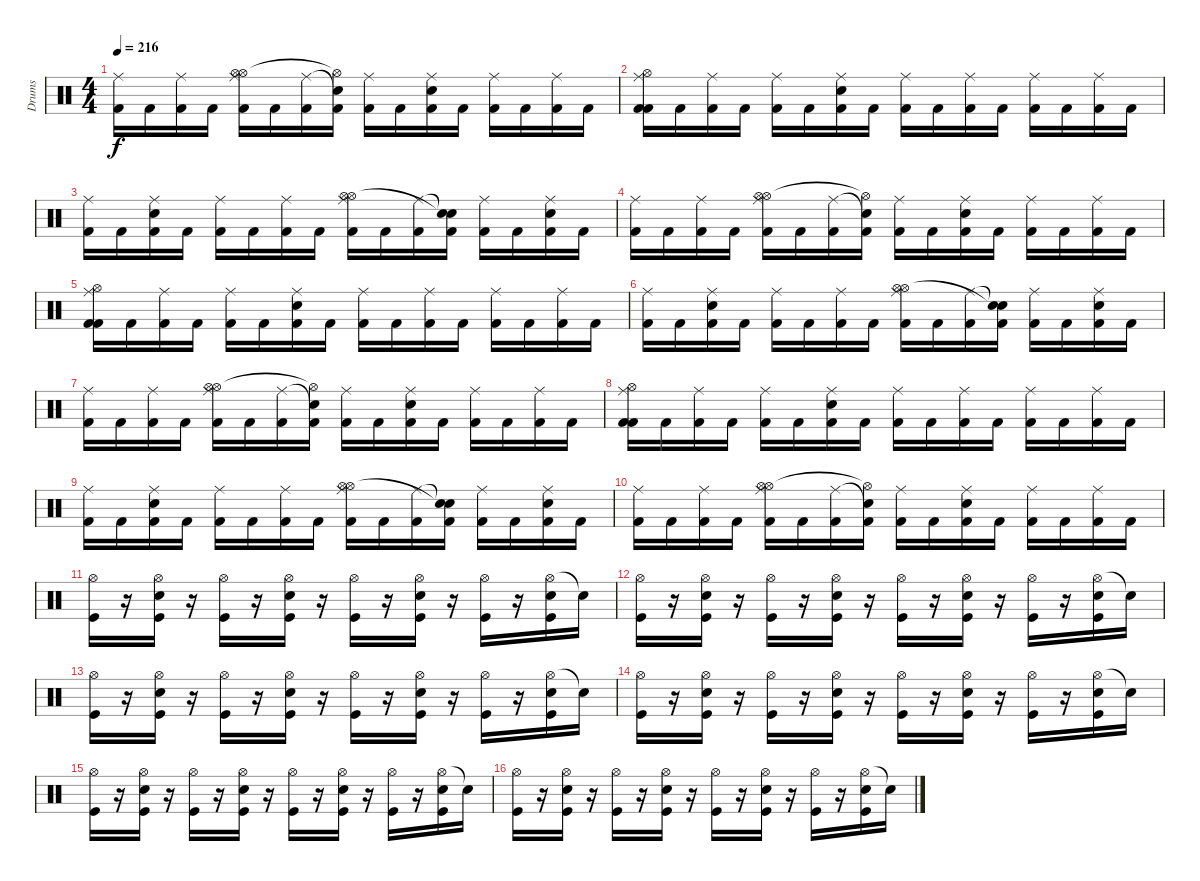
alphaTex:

\track ("Drums" "Drums") {instrument percussion}
\staff {score}
\articulation defaults
\ts (4 4)
\tempo 216
\clef neutral
\ks c
("Kick (hit) 2" "Ride (middle)").16{dy f} "Kick (hit) 2".16 ("Kick (hit) 2" "Ride (middle)").16 "Kick (hit) 2".16 ("Kick (hit) 2" "Ride (middle)" "Hi-Hat (open)" "Hi-Hat (open)").16 "Kick (hit) 2".16 ("Kick (hit) 2" "Ride (middle)").16 ("Kick (hit) 2" "Snare (hit)"{t} "Hi-Hat (open)"{t}).16 ("Kick (hit) 2" "Ride (middle)").16 "Kick (hit) 2".16 ("Kick (hit) 2" "Ride (middle)" "Snare (hit) 2").16 "Kick (hit) 2".16 ("Kick (hit) 2" "Ride (middle)").16 "Kick (hit) 2".16 ("Kick (hit) 2" "Ride (middle)").16 "Kick (hit) 2".16 |
("Kick (hit) 2" "Ride (middle)" "Hi-Hat (open)" "Kick (hit) 2").16 "Kick (hit) 2".16 ("Kick (hit) 2" "Ride (middle)").16 "Kick (hit) 2".16 ("Kick (hit) 2" "Ride (middle)").16 "Kick (hit) 2".16 ("Kick (hit) 2" "Ride (middle)" "Snare (hit) 2").16 "Kick (hit) 2".16 ("Kick (hit) 2" "Ride (middle)").16 "Kick (hit) 2".16 ("Kick (hit) 2" "Ride (middle)").16 "Kick (hit) 2".16 ("Kick (hit) 2" "Ride (middle)").16 "Kick (hit) 2".16 ("Kick (hit) 2" "Ride (middle)").16 "Kick (hit) 2".16 |
("Kick (hit) 2" "Ride (middle)").16 "Kick (hit) 2".16 ("Kick (hit) 2" "Ride (middle)" "Snare (hit) 2").16 "Kick (hit) 2".16 ("Kick (hit) 2" "Ride (middle)").16 "Kick (hit) 2".16 ("Kick (hit) 2" "Ride (middle)").16 "Kick (hit) 2".16 ("Kick (hit) 2" "Ride (middle)" "Hi-Hat (open)" "Hi-Hat (open)").16 "Kick (hit) 2".16 ("Kick (hit) 2" "Ride (middle)").16 ("Kick (hit) 2" "Snare (hit)"{t} "Snare (hit)"{t}).16 ("Kick (hit) 2" "Ride (middle)").16 "Kick (hit) 2".16 ("Kick (hit) 2" "Ride (middle)" "Snare (hit) 2").16 "Kick (hit) 2".16 |
("Kick (hit) 2" "Ride (middle)").16 "Kick (hit) 2".16 ("Kick (hit) 2" "Ride (middle)").16 "Kick (hit) 2".16 ("Kick (hit) 2" "Ride (middle)" "Hi-Hat (open)" "Hi-Hat (open)").16 "Kick (hit) 2".16 ("Kick (hit) 2" "Ride (middle)").16 ("Kick (hit) 2" "Snare (hit)"{t} "Hi-Hat (open)"{t}).16 ("Kick (hit) 2" "Ride (middle)").16 "Kick (hit) 2".16 ("Kick (hit) 2" "Ride (middle)" "Snare (hit) 2").16 "Kick (hit) 2".16 ("Kick (hit) 2" "Ride (middle)").16 "Kick (hit) 2".16 ("Kick (hit) 2" "Ride (middle)").16 "Kick (hit) 2".16 |
("Kick (hit) 2" "Ride (middle)" "Hi-Hat (open)" "Kick (hit) 2").16 "Kick (hit) 2".16 ("Kick (hit) 2" "Ride (middle)").16 "Kick (hit) 2".16 ("Kick (hit) 2" "Ride (middle)").16 "Kick (hit) 2".16 ("Kick (hit) 2" "Ride (middle)" "Snare (hit) 2").16 "Kick (hit) 2".16 ("Kick (hit) 2" "Ride (middle)").16 "Kick (hit) 2".16 ("Kick (hit) 2" "Ride (middle)").16 "Kick (hit) 2".16 ("Kick (hit) 2" "Ride (middle)").16 "Kick (hit) 2".16 ("Kick (hit) 2" "Ride (middle)").16 "Kick (hit) 2".16 |
("Kick (hit) 2" "Ride (middle)").16 "Kick (hit) 2".16 ("Kick (hit) 2" "Ride (middle)" "Snare (hit) 2").16 "Kick (hit) 2".16 ("Kick (hit) 2" "Ride (middle)").16 "Kick (hit) 2".16 ("Kick (hit) 2" "Ride (middle)").16 "Kick (hit) 2".16 ("Kick (hit) 2" "Ride (middle)" "Hi-Hat (open)" "Hi-Hat (open)").16 "Kick (hit) 2".16 ("Kick (hit) 2" "Ride (middle)").16 ("Kick (hit) 2" "Snare (hit)"{t} "Snare (hit)"{t}).16 ("Kick (hit) 2" "Ride (middle)").16 "Kick (hit) 2".16 ("Kick (hit) 2" "Ride (middle)" "Snare (hit) 2").16 "Kick (hit) 2".16 |
("Kick (hit) 2" "Ride (middle)").16 "Kick (hit) 2".16 ("Kick (hit) 2" "Ride (middle)").16 "Kick (hit) 2".16 ("Kick (hit) 2" "Ride (middle)" "Hi-Hat (open)" "Hi-Hat (open)").16 "Kick (hit) 2".16 ("Kick (hit) 2" "Ride (middle)").16 ("Kick (hit) 2" "Snare (hit)"{t} "Hi-Hat (open)"{t}).16 ("Kick (hit) 2" "Ride (middle)").16 "Kick (hit) 2".16 ("Kick (hit) 2" "Ride (middle)" "Snare (hit) 2").16 "Kick (hit) 2".16 ("Kick (hit) 2" "Ride (middle)").16 "Kick (hit) 2".16 ("Kick (hit) 2" "Ride (middle)").16 "Kick (hit) 2".16 |
("Kick (hit) 2" "Ride (middle)" "Hi-Hat (open)" "Kick (hit) 2").16 "Kick (hit) 2".16 ("Kick (hit) 2" "Ride (middle)").16 "Kick (hit) 2".16 ("Kick (hit) 2" "Ride (middle)").16 "Kick (hit) 2".16 ("Kick (hit) 2" "Ride (middle)" "Snare (hit) 2").16 "Kick (hit) 2".16 ("Kick (hit) 2" "Ride (middle)").16 "Kick (hit) 2".16 ("Kick (hit) 2" "Ride (middle)").16 "Kick (hit) 2".16 ("Kick (hit) 2" "Ride (middle)").16 "Kick (hit) 2".16 ("Kick (hit) 2" "Ride (middle)").16 "Kick (hit) 2".16 |
("Kick (hit) 2" "Ride (middle)").16 "Kick (hit) 2".16 ("Kick (hit) 2" "Ride (middle)" "Snare (hit) 2").16 "Kick (hit) 2".16 ("Kick (hit) 2" "Ride (middle)").16 "Kick (hit) 2".16 ("Kick (hit) 2" "Ride (middle)").16 "Kick (hit) 2".16 ("Kick (hit) 2" "Ride (middle)" "Hi-Hat (open)" "Hi-Hat (open)").16 "Kick (hit) 2".16 ("Kick (hit) 2" "Ride (middle)").16 ("Kick (hit) 2" "Snare (hit)"{t} "Snare (hit)"{t}).16 ("Kick (hit) 2" "Ride (middle)").16 "Kick (hit) 2".16 ("Kick (hit) 2" "Ride (middle)" "Snare (hit) 2").16 "Kick (hit) 2".16 |
("Kick (hit) 2" "Ride (middle)").16 "Kick (hit) 2".16 ("Kick (hit) 2" "Ride (middle)").16 "Kick (hit) 2".16 ("Kick (hit) 2" "Ride (middle)" "Hi-Hat (open)" "Hi-Hat (open)").16 "Kick (hit) 2".16 ("Kick (hit) 2" "Ride (middle)").16 ("Kick (hit) 2" "Snare (hit)"{t} "Hi-Hat (open)"{t}).16 ("Kick (hit) 2" "Ride (middle)").16 "Kick (hit) 2".16 ("Kick (hit) 2" "Ride (middle)" "Snare (hit) 2").16 "Kick (hit) 2".16 ("Kick (hit) 2" "Ride (middle)").16 "Kick (hit) 2".16 ("Kick (hit) 2" "Ride (middle)").16 "Kick (hit) 2".16 |
("Hi-Hat (open)" "Kick (hit)").16 r.16 ("Hi-Hat (open)" "Snare (hit) 2" "Kick (hit)").16 r.16 ("Hi-Hat (open)" "Kick (hit)").16 r.16 ("Hi-Hat (open)" "Snare (hit) 2" "Kick (hit)").16 r.16 ("Hi-Hat (open)" "Kick (hit)").16 r.16 ("Hi-Hat (open)" "Snare (hit) 2" "Kick (hit)").16 r.16 ("Hi-Hat (open)" "Kick (hit)").16 r.16 ("Hi-Hat (open)" "Snare (hit) 2" "Kick (hit)").16 "Snare (hit)"{t}.16 |
("Hi-Hat (open)" "Kick (hit)").16 r.16 ("Hi-Hat (open)" "Snare (hit) 2" "Kick (hit)").16 r.16 ("Hi-Hat (open)" "Kick (hit)").16 r.16 ("Hi-Hat (open)" "Snare (hit) 2" "Kick (hit)").16 r.16 ("Hi-Hat (open)" "Kick (hit)").16 r.16 ("Hi-Hat (open)" "Snare (hit) 2" "Kick (hit)").16 r.16 ("Hi-Hat (open)" "Kick (hit)").16 r.16 ("Hi-Hat (open)" "Snare (hit) 2" "Kick (hit)").16 "Snare (hit)"{t}.16 |
("Hi-Hat (open)" "Kick (hit)").16 r.16 ("Hi-Hat (open)" "Snare (hit) 2" "Kick (hit)").16 r.16 ("Hi-Hat (open)" "Kick (hit)").16 r.16 ("Hi-Hat (open)" "Snare (hit) 2" "Kick (hit)").16 r.16 ("Hi-Hat (open)" "Kick (hit)").16 r.16 ("Hi-Hat (open)" "Snare (hit) 2" "Kick (hit)").16 r.16 ("Hi-Hat (open)" "Kick (hit)").16 r.16 ("Hi-Hat (open)" "Snare (hit) 2" "Kick (hit)").16 "Snare (hit)"{t}.16 |
("Hi-Hat (open)" "Kick (hit)").16 r.16 ("Hi-Hat (open)" "Snare (hit) 2" "Kick (hit)").16 r.16 ("Hi-Hat (open)" "Kick (hit)").16 r.16 ("Hi-Hat (open)" "Snare (hit) 2" "Kick (hit)").16 r.16 ("Hi-Hat (open)" "Kick (hit)").16 r.16 ("Hi-Hat (open)" "Snare (hit) 2" "Kick (hit)").16 r.16 ("Hi-Hat (open)" "Kick (hit)").16 r.16 ("Hi-Hat (open)" "Snare (hit) 2" "Kick (hit)").16 "Snare (hit)"{t}.16 |
("Hi-Hat (open)" "Kick (hit)").16 r.16 ("Hi-Hat (open)" "Snare (hit) 2" "Kick (hit)").16 r.16 ("Hi-Hat (open)" "Kick (hit)").16 r.16 ("Hi-Hat (open)" "Snare (hit) 2" "Kick (hit)").16 r.16 ("Hi-Hat (open)" "Kick (hit)").16 r.16 ("Hi-Hat (open)" "Snare (hit) 2" "Kick (hit)").16 r.16 ("Hi-Hat (open)" "Kick (hit)").16 r.16 ("Hi-Hat (open)" "Snare (hit) 2" "Kick (hit)").16 "Snare (hit)"{t}.16 |
("Hi-Hat (open)" "Kick (hit)").16 r.16 ("Hi-Hat (open)" "Snare (hit) 2" "Kick (hit)").16 r.16 ("Hi-Hat (open)" "Kick (hit)").16 r.16 ("Hi-Hat (open)" "Snare (hit) 2" "Kick (hit)").16 r.16 ("Hi-Hat (open)" "Kick (hit)").16 r.16 ("Hi-Hat (open)" "Snare (hit) 2" "Kick (hit)").16 r.16 ("Hi-Hat (open)" "Kick (hit)").16 r.16 ("Hi-Hat (open)" "Snare (hit) 2" "Kick (hit)").16 "Snare (hit)"{t}.16
